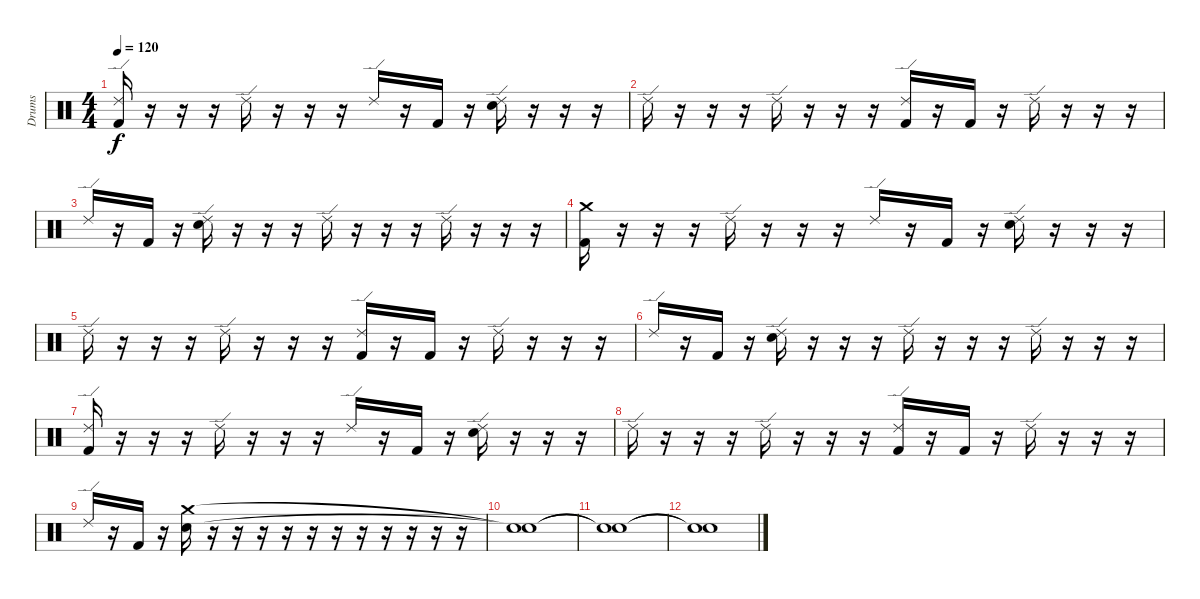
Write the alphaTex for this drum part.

\track ("Drums" "Drums") {instrument percussion}
\staff {score}
\articulation defaults
\ts (4 4)
\tempo 120
\clef neutral
\ks c
("Ride (edge) 2" "Kick (hit) 2").16{dy f} r.16 r.16 r.16 "Ride (edge) 2".16 r.16 r.16 r.16 "Ride (edge) 2".16 r.16 "Kick (hit) 2".16 r.16 ("Ride (edge) 2" "Electric Snare (hit)").16 r.16 r.16 r.16 |
"Ride (edge) 2".16 r.16 r.16 r.16 "Ride (edge) 2".16 r.16 r.16 r.16 ("Ride (edge) 2" "Kick (hit) 2").16 r.16 "Kick (hit) 2".16 r.16 "Ride (edge) 2".16 r.16 r.16 r.16 |
"Ride (edge) 2".16 r.16 "Kick (hit) 2".16 r.16 ("Ride (edge) 2" "Electric Snare (hit)").16 r.16 r.16 r.16 "Ride (edge) 2".16 r.16 r.16 r.16 "Ride (edge) 2".16 r.16 r.16 r.16 |
("Crash medium (hit)" "Kick (hit) 2").16 r.16 r.16 r.16 "Ride (edge) 2".16 r.16 r.16 r.16 "Ride (edge) 2".16 r.16 "Kick (hit) 2".16 r.16 ("Ride (edge) 2" "Electric Snare (hit)").16 r.16 r.16 r.16 |
"Ride (edge) 2".16 r.16 r.16 r.16 "Ride (edge) 2".16 r.16 r.16 r.16 ("Ride (edge) 2" "Kick (hit) 2").16 r.16 "Kick (hit) 2".16 r.16 "Ride (edge) 2".16 r.16 r.16 r.16 |
"Ride (edge) 2".16 r.16 "Kick (hit) 2".16 r.16 ("Ride (edge) 2" "Electric Snare (hit)").16 r.16 r.16 r.16 "Ride (edge) 2".16 r.16 r.16 r.16 "Ride (edge) 2".16 r.16 r.16 r.16 |
("Ride (edge) 2" "Kick (hit) 2").16 r.16 r.16 r.16 "Ride (edge) 2".16 r.16 r.16 r.16 "Ride (edge) 2".16 r.16 "Kick (hit) 2".16 r.16 ("Ride (edge) 2" "Electric Snare (hit)").16 r.16 r.16 r.16 |
"Ride (edge) 2".16 r.16 r.16 r.16 "Ride (edge) 2".16 r.16 r.16 r.16 ("Ride (edge) 2" "Kick (hit) 2").16 r.16 "Kick (hit) 2".16 r.16 "Ride (edge) 2".16 r.16 r.16 r.16 |
"Ride (edge) 2".16 r.16 "Kick (hit) 2".16 r.16 ("Crash medium (hit)" "Electric Snare (hit)").16 r.16 r.16 r.16 r.16 r.16 r.16 r.16 r.16 r.16 r.16 r.16 |
("Snare (hit)"{t} "Snare (hit)"{t}).1{volume 0} |
("Snare (hit)"{t} "Snare (hit)"{t}).1 |
("Snare (hit)"{t} "Snare (hit)"{t}).1
